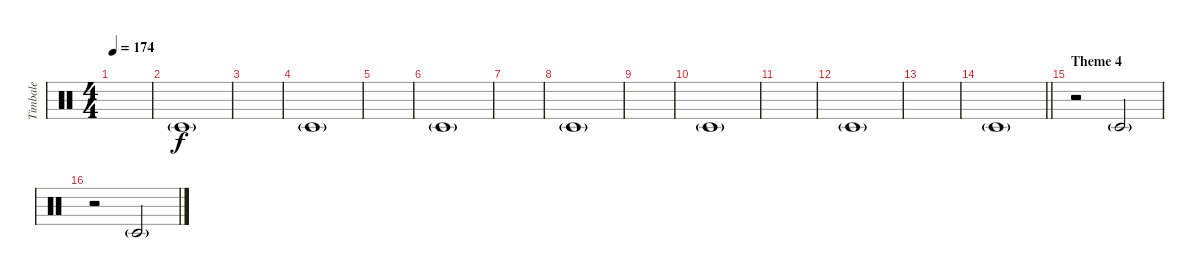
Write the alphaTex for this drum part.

\track ("Timbale" "Timbale") {instrument percussion}
\staff {score}
\articulation defaults
\ts (4 4)
\tempo 174
\clef neutral
\ks c
|
"Timbale low (hit)"{g}.1 |
|
"Timbale low (hit)"{g}.1 |
|
"Timbale low (hit)"{g}.1 |
|
"Timbale low (hit)"{g}.1 |
|
"Timbale low (hit)"{g}.1 |
|
"Timbale low (hit)"{g}.1 |
|
\barLineRight lightlight "Timbale low (hit)"{g}.1
|
\section ("" "Theme 4")
r.2 "Timbale low (hit)"{g}.2 |
r.2 "Timbale low (hit)"{g}.2
